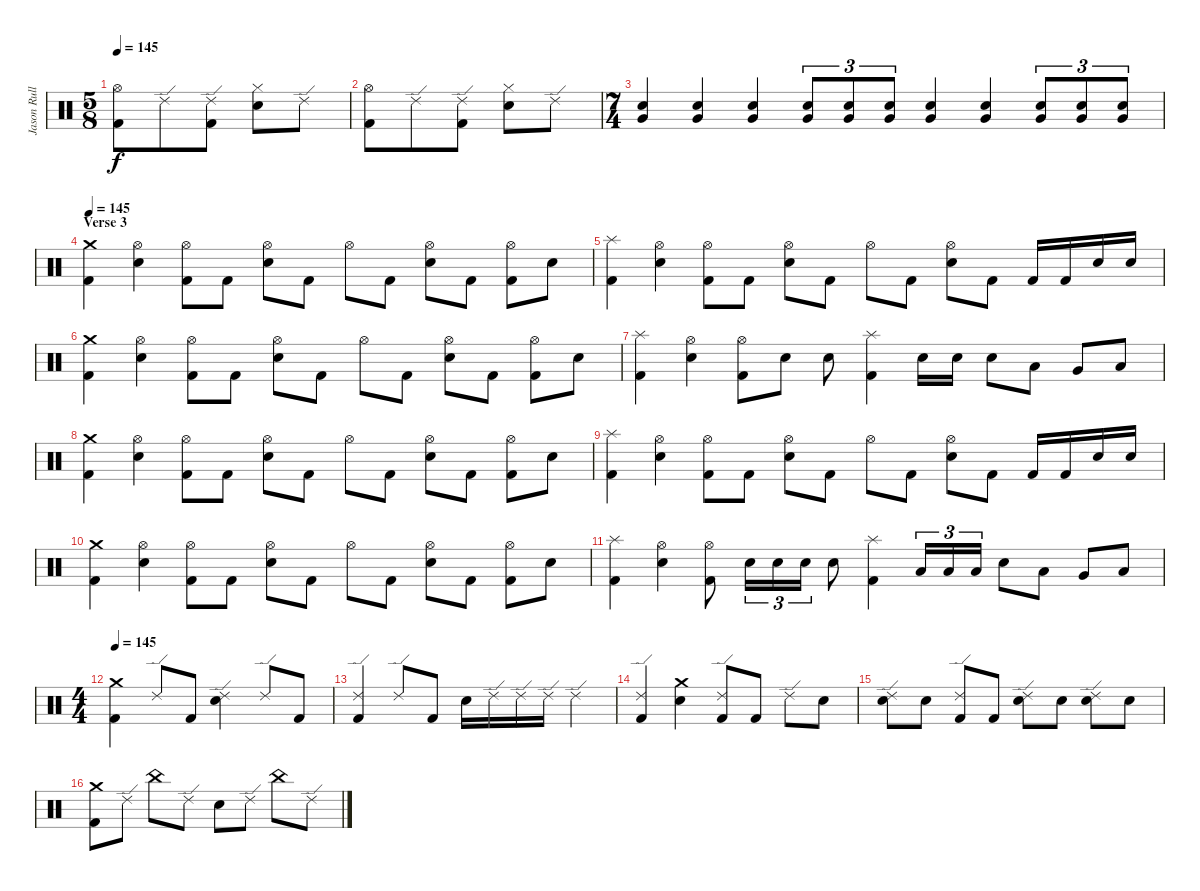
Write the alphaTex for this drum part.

\track ("Jason Rullo" "Jason Rull") {instrument percussion}
\staff {score}
\articulation defaults
\ts (5 8)
\tempo 145
\clef neutral
\ks c
("Hi-Hat (open)" "Kick (hit) 2").8{dy f} "Ride (edge) 2".8 ("Ride (edge) 2" "Kick (hit) 2").8 ("Hi-Hat (closed)" "Electric Snare (hit)").8 "Ride (edge) 2".8 |
("Hi-Hat (open)" "Kick (hit) 2").8 "Ride (edge) 2".8 ("Ride (edge) 2" "Kick (hit) 2").8 ("Hi-Hat (closed)" "Electric Snare (hit)").8 "Ride (edge) 2".8 |
\ts (7 4)
("Very Low Tom (hit)" "Electric Snare (hit)").4 ("Very Low Tom (hit)" "Electric Snare (hit)").4 ("Very Low Tom (hit)" "Electric Snare (hit)").4 ("Very Low Tom (hit)" "Electric Snare (hit)").8{tu (3 2)} ("Very Low Tom (hit)" "Electric Snare (hit)").8{tu (3 2)} ("Very Low Tom (hit)" "Electric Snare (hit)").8{tu (3 2)} ("Very Low Tom (hit)" "Electric Snare (hit)").4 ("Very Low Tom (hit)" "Electric Snare (hit)").4 ("Very Low Tom (hit)" "Electric Snare (hit)").8{tu (3 2)} ("Very Low Tom (hit)" "Electric Snare (hit)").8{tu (3 2)} ("Very Low Tom (hit)" "Electric Snare (hit)").8{tu (3 2)} |
\section ("" "Verse 3")
\tempo 145
("Crash medium (hit)" "Kick (hit) 2").4 ("Hi-Hat (open)" "Electric Snare (hit)").4 ("Hi-Hat (open)" "Kick (hit) 2").8 "Kick (hit) 2".8 ("Hi-Hat (open)" "Electric Snare (hit)").8 "Kick (hit) 2".8 "Hi-Hat (open)".8 "Kick (hit) 2".8 ("Hi-Hat (open)" "Electric Snare (hit)").8 "Kick (hit) 2".8 ("Hi-Hat (open)" "Kick (hit) 2").8 "Electric Snare (hit)".8 |
("Splash (hit)" "Kick (hit) 2").4 ("Hi-Hat (open)" "Electric Snare (hit)").4 ("Hi-Hat (open)" "Kick (hit) 2").8 "Kick (hit) 2".8 ("Hi-Hat (open)" "Electric Snare (hit)").8 "Kick (hit) 2".8 "Hi-Hat (open)".8 "Kick (hit) 2".8 ("Hi-Hat (open)" "Electric Snare (hit)").8 "Kick (hit) 2".8 "Kick (hit) 2".16 "Kick (hit) 2".16 "Electric Snare (hit)".16 "Electric Snare (hit)".16 |
("Crash medium (hit)" "Kick (hit) 2").4 ("Hi-Hat (open)" "Electric Snare (hit)").4 ("Hi-Hat (open)" "Kick (hit) 2").8 "Kick (hit) 2".8 ("Hi-Hat (open)" "Electric Snare (hit)").8 "Kick (hit) 2".8 "Hi-Hat (open)".8 "Kick (hit) 2".8 ("Hi-Hat (open)" "Electric Snare (hit)").8 "Kick (hit) 2".8 ("Hi-Hat (open)" "Kick (hit) 2").8 "Electric Snare (hit)".8 |
("Splash (hit)" "Kick (hit) 2").4 ("Hi-Hat (open)" "Electric Snare (hit)").4 ("Hi-Hat (open)" "Kick (hit) 2").8 "Electric Snare (hit)".8 "Electric Snare (hit)".8 ("Splash (hit)" "Kick (hit) 2").4 "Electric Snare (hit)".16 "Electric Snare (hit)".16 "Electric Snare (hit)".8 "Low Tom (hit)".8 "Very Low Tom (hit)".8 "Low Floor Tom (hit)".8 |
("Crash medium (hit)" "Kick (hit) 2").4 ("Hi-Hat (open)" "Electric Snare (hit)").4 ("Hi-Hat (open)" "Kick (hit) 2").8 "Kick (hit) 2".8 ("Hi-Hat (open)" "Electric Snare (hit)").8 "Kick (hit) 2".8 "Hi-Hat (open)".8 "Kick (hit) 2".8 ("Hi-Hat (open)" "Electric Snare (hit)").8 "Kick (hit) 2".8 ("Hi-Hat (open)" "Kick (hit) 2").8 "Electric Snare (hit)".8 |
("Splash (hit)" "Kick (hit) 2").4 ("Hi-Hat (open)" "Electric Snare (hit)").4 ("Hi-Hat (open)" "Kick (hit) 2").8 "Kick (hit) 2".8 ("Hi-Hat (open)" "Electric Snare (hit)").8 "Kick (hit) 2".8 "Hi-Hat (open)".8 "Kick (hit) 2".8 ("Hi-Hat (open)" "Electric Snare (hit)").8 "Kick (hit) 2".8 "Kick (hit) 2".16 "Kick (hit) 2".16 "Electric Snare (hit)".16 "Electric Snare (hit)".16 |
("Crash medium (hit)" "Kick (hit) 2").4 ("Hi-Hat (open)" "Electric Snare (hit)").4 ("Hi-Hat (open)" "Kick (hit) 2").8 "Kick (hit) 2".8 ("Hi-Hat (open)" "Electric Snare (hit)").8 "Kick (hit) 2".8 "Hi-Hat (open)".8 "Kick (hit) 2".8 ("Hi-Hat (open)" "Electric Snare (hit)").8 "Kick (hit) 2".8 ("Hi-Hat (open)" "Kick (hit) 2").8 "Electric Snare (hit)".8 |
("Splash (hit)" "Kick (hit) 2").4 ("Hi-Hat (open)" "Electric Snare (hit)").4 ("Hi-Hat (open)" "Kick (hit) 2").8 "Electric Snare (hit)".16{tu (3 2)} "Electric Snare (hit)".16{tu (3 2)} "Electric Snare (hit)".16{tu (3 2)} "Electric Snare (hit)".8 ("Splash (hit)" "Kick (hit) 2").4 "Low Tom (hit)".16{tu (3 2)} "Low Tom (hit)".16{tu (3 2)} "Low Tom (hit)".16{tu (3 2)} "Electric Snare (hit)".8 "Low Tom (hit)".8 "Very Low Tom (hit)".8 "Low Floor Tom (hit)".8 |
\ts (4 4)
\tempo 145
("Crash medium (hit)" "Kick (hit) 2").4 "Ride (edge) 2".8 "Kick (hit) 2".8 ("Electric Snare (hit)" "Ride (edge) 2").4 "Ride (edge) 2".8 "Kick (hit) 2".8 |
("Ride (edge) 2" "Kick (hit) 2").4 "Ride (edge) 2".8 "Kick (hit) 2".8 "Electric Snare (hit)".16 "Ride (edge) 2".16 "Ride (edge) 2".16 "Ride (edge) 2".16 "Ride (edge) 2".4 |
("Ride (edge) 2" "Kick (hit) 2").4 ("Crash medium (hit)" "Electric Snare (hit)").4 ("Ride (edge) 2" "Kick (hit) 2").8 "Kick (hit) 2".8 "Ride (edge) 2".8 "Electric Snare (hit)".8 |
("Ride (edge) 2" "Electric Snare (hit)").8 "Electric Snare (hit)".8 ("Ride (edge) 2" "Kick (hit) 2").8 "Kick (hit) 2".8 ("Ride (edge) 2" "Electric Snare (hit)").8 "Electric Snare (hit)".8 ("Ride (edge) 2" "Electric Snare (hit)").8 "Electric Snare (hit)".8 |
("Crash medium (hit)" "Kick (hit) 2").8 "Ride (edge) 2".8 "China (hit)".8 "Ride (edge) 2".8 "Electric Snare (hit)".8 "Ride (edge) 2".8 "China (hit)".8 "Ride (edge) 2".8
